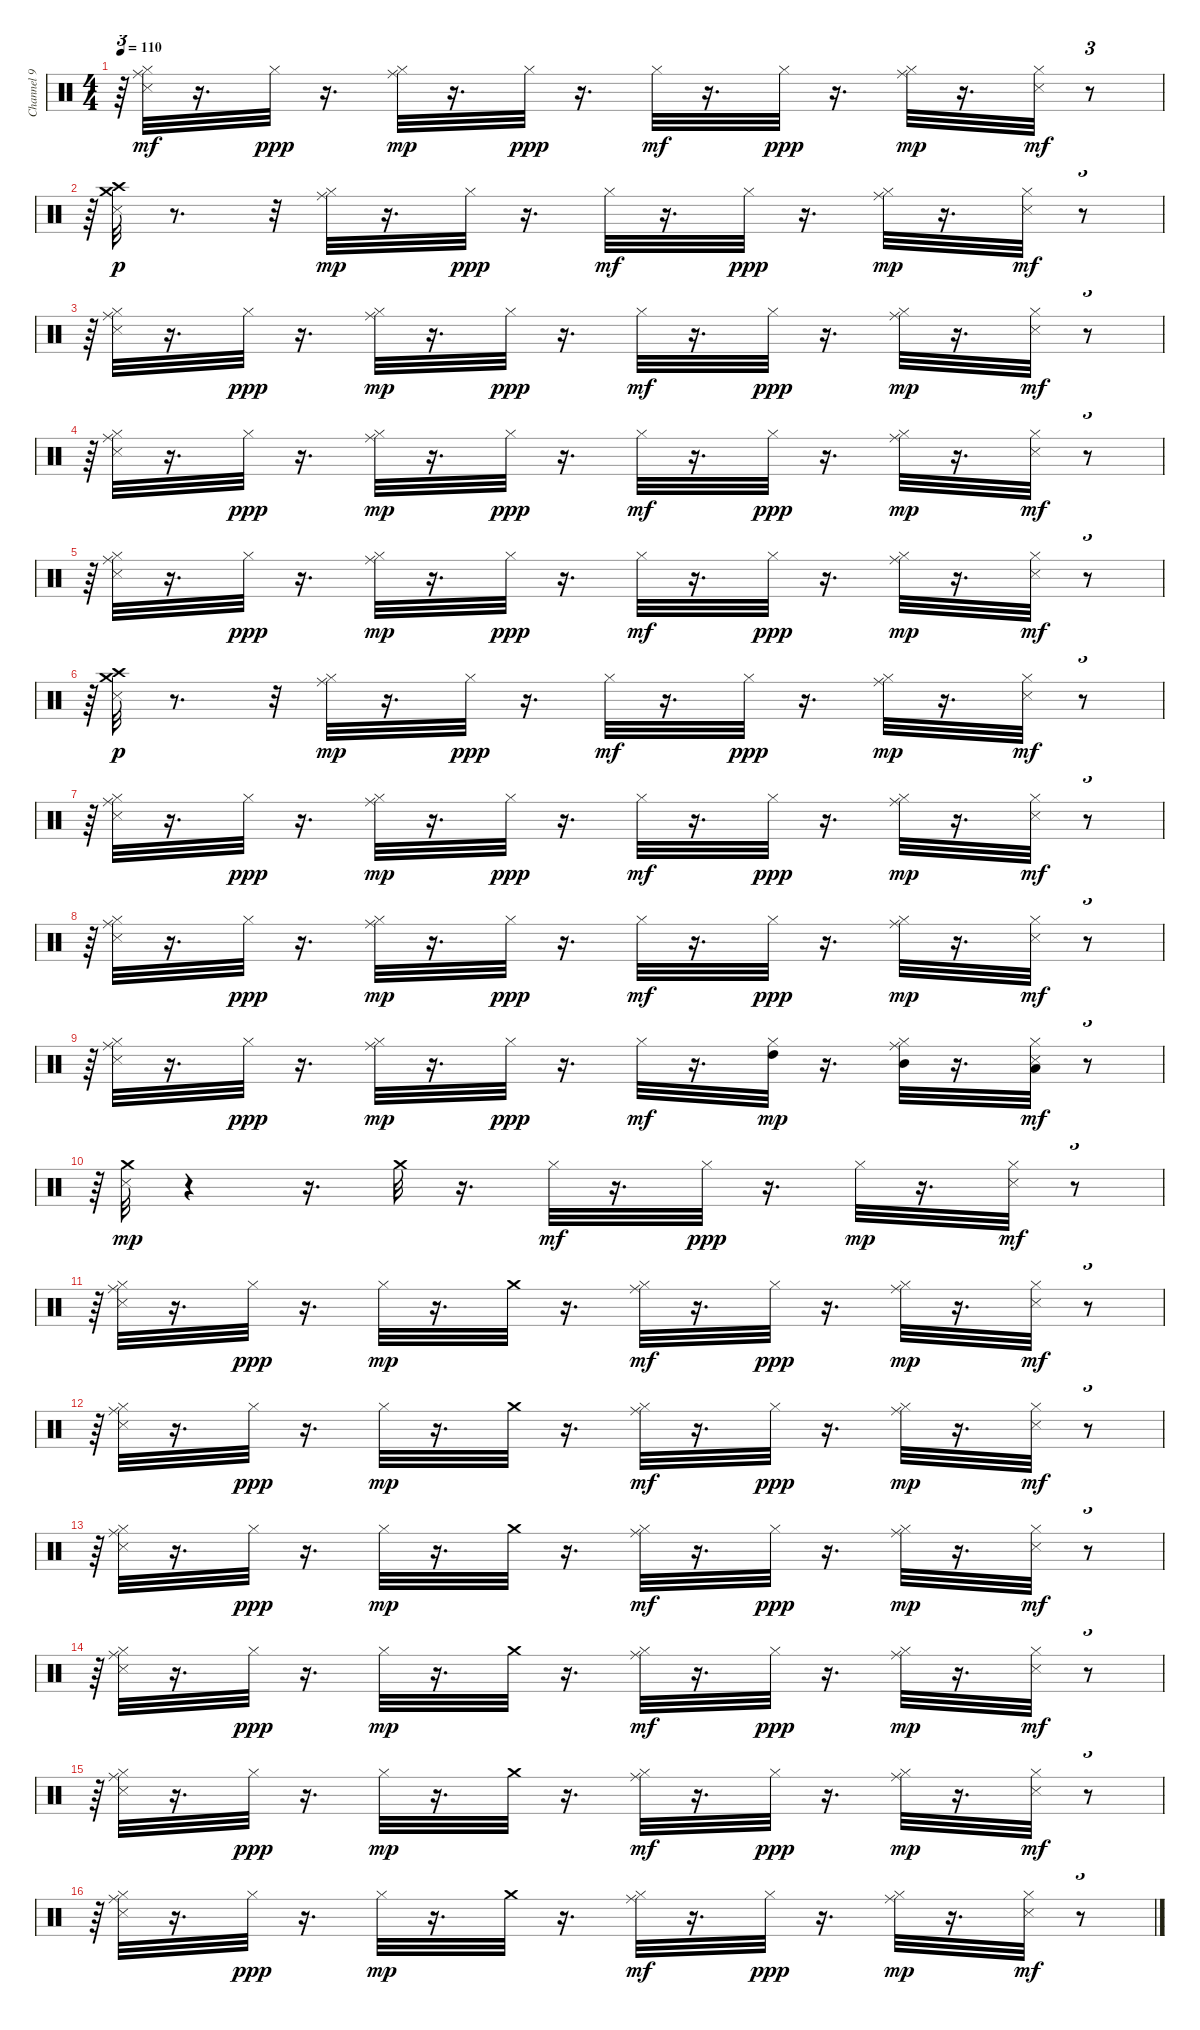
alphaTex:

\track ("Channel 9" "Channel 9") {instrument percussion}
\staff {score}
\articulation defaults
\ts (4 4)
\tempo 110
\clef neutral
\ks c
r.64{tu (3 2) dy mf} ("Ride (middle)" "Hi-Hat (closed)" "Metronome (hit)").32 r.16{d} "Hi-Hat (closed)".32{dy ppp} r.16{d} ("Ride (middle)" "Hi-Hat (closed)").32{dy mp} r.16{d} "Hi-Hat (closed)".32{dy ppp} r.16{d} "Hi-Hat (closed)".32{dy mf} r.16{d} "Hi-Hat (closed)".32{dy ppp} r.16{d} ("Ride (middle)" "Hi-Hat (closed)").32{dy mp} r.16{d} ("Hi-Hat (closed)" "Metronome (hit)").32{dy mf} r.8{tu (3 2)} |
r.64{tu (3 2)} ("Crash medium (hit)" "Metronome (hit)" "Crash high (hit)").32{dy p} r.8{d} r.32 ("Ride (middle)" "Hi-Hat (closed)").32{dy mp} r.16{d} "Hi-Hat (closed)".32{dy ppp} r.16{d} "Hi-Hat (closed)".32{dy mf} r.16{d} "Hi-Hat (closed)".32{dy ppp} r.16{d} ("Ride (middle)" "Hi-Hat (closed)").32{dy mp} r.16{d} ("Hi-Hat (closed)" "Metronome (hit)").32{dy mf} r.8{tu (3 2)} |
r.64{tu (3 2)} ("Ride (middle)" "Hi-Hat (closed)" "Metronome (hit)").32 r.16{d} "Hi-Hat (closed)".32{dy ppp} r.16{d} ("Ride (middle)" "Hi-Hat (closed)").32{dy mp} r.16{d} "Hi-Hat (closed)".32{dy ppp} r.16{d} "Hi-Hat (closed)".32{dy mf} r.16{d} "Hi-Hat (closed)".32{dy ppp} r.16{d} ("Ride (middle)" "Hi-Hat (closed)").32{dy mp} r.16{d} ("Hi-Hat (closed)" "Metronome (hit)").32{dy mf} r.8{tu (3 2)} |
r.64{tu (3 2)} ("Ride (middle)" "Hi-Hat (closed)" "Metronome (hit)").32 r.16{d} "Hi-Hat (closed)".32{dy ppp} r.16{d} ("Ride (middle)" "Hi-Hat (closed)").32{dy mp} r.16{d} "Hi-Hat (closed)".32{dy ppp} r.16{d} "Hi-Hat (closed)".32{dy mf} r.16{d} "Hi-Hat (closed)".32{dy ppp} r.16{d} ("Ride (middle)" "Hi-Hat (closed)").32{dy mp} r.16{d} ("Hi-Hat (closed)" "Metronome (hit)").32{dy mf} r.8{tu (3 2)} |
r.64{tu (3 2)} ("Ride (middle)" "Hi-Hat (closed)" "Metronome (hit)").32 r.16{d} "Hi-Hat (closed)".32{dy ppp} r.16{d} ("Ride (middle)" "Hi-Hat (closed)").32{dy mp} r.16{d} "Hi-Hat (closed)".32{dy ppp} r.16{d} "Hi-Hat (closed)".32{dy mf} r.16{d} "Hi-Hat (closed)".32{dy ppp} r.16{d} ("Ride (middle)" "Hi-Hat (closed)").32{dy mp} r.16{d} ("Hi-Hat (closed)" "Metronome (hit)").32{dy mf} r.8{tu (3 2)} |
r.64{tu (3 2)} ("Crash medium (hit)" "Metronome (hit)" "Crash high (hit)").32{dy p} r.8{d} r.32 ("Ride (middle)" "Hi-Hat (closed)").32{dy mp} r.16{d} "Hi-Hat (closed)".32{dy ppp} r.16{d} "Hi-Hat (closed)".32{dy mf} r.16{d} "Hi-Hat (closed)".32{dy ppp} r.16{d} ("Ride (middle)" "Hi-Hat (closed)").32{dy mp} r.16{d} ("Hi-Hat (closed)" "Metronome (hit)").32{dy mf} r.8{tu (3 2)} |
r.64{tu (3 2)} ("Ride (middle)" "Hi-Hat (closed)" "Metronome (hit)").32 r.16{d} "Hi-Hat (closed)".32{dy ppp} r.16{d} ("Ride (middle)" "Hi-Hat (closed)").32{dy mp} r.16{d} "Hi-Hat (closed)".32{dy ppp} r.16{d} "Hi-Hat (closed)".32{dy mf} r.16{d} "Hi-Hat (closed)".32{dy ppp} r.16{d} ("Ride (middle)" "Hi-Hat (closed)").32{dy mp} r.16{d} ("Hi-Hat (closed)" "Metronome (hit)").32{dy mf} r.8{tu (3 2)} |
r.64{tu (3 2)} ("Ride (middle)" "Hi-Hat (closed)" "Metronome (hit)").32 r.16{d} "Hi-Hat (closed)".32{dy ppp} r.16{d} ("Ride (middle)" "Hi-Hat (closed)").32{dy mp} r.16{d} "Hi-Hat (closed)".32{dy ppp} r.16{d} "Hi-Hat (closed)".32{dy mf} r.16{d} "Hi-Hat (closed)".32{dy ppp} r.16{d} ("Ride (middle)" "Hi-Hat (closed)").32{dy mp} r.16{d} ("Hi-Hat (closed)" "Metronome (hit)").32{dy mf} r.8{tu (3 2)} |
r.64{tu (3 2)} ("Ride (middle)" "Hi-Hat (closed)" "Metronome (hit)").32 r.16{d} "Hi-Hat (closed)".32{dy ppp} r.16{d} ("Ride (middle)" "Hi-Hat (closed)").32{dy mp} r.16{d} "Hi-Hat (closed)".32{dy ppp} r.16{d} "Hi-Hat (closed)".32{dy mf} r.16{d} ("Hi-Hat (closed)" "High Tom (hit)").32{dy mp} r.16{d} ("Ride (middle)" "Hi-Hat (closed)" "Mid Tom (hit)").32 r.16{d} ("Hi-Hat (closed)" "Low Tom (hit)" "Metronome (hit)").32{dy mf} r.8{tu (3 2)} |
r.64{tu (3 2)} ("Crash medium (hit)" "Metronome (hit)").32{dy mp} r.4 r.16{d} "Crash medium (hit)".32 r.16{d} "Hi-Hat (closed)".32{dy mf} r.16{d} "Hi-Hat (closed)".32{dy ppp} r.16{d} "Hi-Hat (closed)".32{dy mp} r.16{d} ("Hi-Hat (closed)" "Metronome (hit)").32{dy mf} r.8{tu (3 2)} |
r.64{tu (3 2)} ("Ride (middle)" "Hi-Hat (closed)" "Metronome (hit)").32 r.16{d} "Hi-Hat (closed)".32{dy ppp} r.16{d} "Hi-Hat (closed)".32{dy mp} r.16{d} "Crash medium (hit)".32 r.16{d} ("Ride (middle)" "Hi-Hat (closed)").32{dy mf} r.16{d} "Hi-Hat (closed)".32{dy ppp} r.16{d} ("Ride (middle)" "Hi-Hat (closed)").32{dy mp} r.16{d} ("Hi-Hat (closed)" "Metronome (hit)").32{dy mf} r.8{tu (3 2)} |
r.64{tu (3 2)} ("Ride (middle)" "Hi-Hat (closed)" "Metronome (hit)").32 r.16{d} "Hi-Hat (closed)".32{dy ppp} r.16{d} "Hi-Hat (closed)".32{dy mp} r.16{d} "Crash medium (hit)".32 r.16{d} ("Ride (middle)" "Hi-Hat (closed)").32{dy mf} r.16{d} "Hi-Hat (closed)".32{dy ppp} r.16{d} ("Ride (middle)" "Hi-Hat (closed)").32{dy mp} r.16{d} ("Hi-Hat (closed)" "Metronome (hit)").32{dy mf} r.8{tu (3 2)} |
r.64{tu (3 2)} ("Ride (middle)" "Hi-Hat (closed)" "Metronome (hit)").32 r.16{d} "Hi-Hat (closed)".32{dy ppp} r.16{d} "Hi-Hat (closed)".32{dy mp} r.16{d} "Crash medium (hit)".32 r.16{d} ("Ride (middle)" "Hi-Hat (closed)").32{dy mf} r.16{d} "Hi-Hat (closed)".32{dy ppp} r.16{d} ("Ride (middle)" "Hi-Hat (closed)").32{dy mp} r.16{d} ("Hi-Hat (closed)" "Metronome (hit)").32{dy mf} r.8{tu (3 2)} |
r.64{tu (3 2)} ("Ride (middle)" "Hi-Hat (closed)" "Metronome (hit)").32 r.16{d} "Hi-Hat (closed)".32{dy ppp} r.16{d} "Hi-Hat (closed)".32{dy mp} r.16{d} "Crash medium (hit)".32 r.16{d} ("Ride (middle)" "Hi-Hat (closed)").32{dy mf} r.16{d} "Hi-Hat (closed)".32{dy ppp} r.16{d} ("Ride (middle)" "Hi-Hat (closed)").32{dy mp} r.16{d} ("Hi-Hat (closed)" "Metronome (hit)").32{dy mf} r.8{tu (3 2)} |
r.64{tu (3 2)} ("Ride (middle)" "Hi-Hat (closed)" "Metronome (hit)").32 r.16{d} "Hi-Hat (closed)".32{dy ppp} r.16{d} "Hi-Hat (closed)".32{dy mp} r.16{d} "Crash medium (hit)".32 r.16{d} ("Ride (middle)" "Hi-Hat (closed)").32{dy mf} r.16{d} "Hi-Hat (closed)".32{dy ppp} r.16{d} ("Ride (middle)" "Hi-Hat (closed)").32{dy mp} r.16{d} ("Hi-Hat (closed)" "Metronome (hit)").32{dy mf} r.8{tu (3 2)} |
r.64{tu (3 2)} ("Ride (middle)" "Hi-Hat (closed)" "Metronome (hit)").32 r.16{d} "Hi-Hat (closed)".32{dy ppp} r.16{d} "Hi-Hat (closed)".32{dy mp} r.16{d} "Crash medium (hit)".32 r.16{d} ("Ride (middle)" "Hi-Hat (closed)").32{dy mf} r.16{d} "Hi-Hat (closed)".32{dy ppp} r.16{d} ("Ride (middle)" "Hi-Hat (closed)").32{dy mp} r.16{d} ("Hi-Hat (closed)" "Metronome (hit)").32{dy mf} r.8{tu (3 2)}
